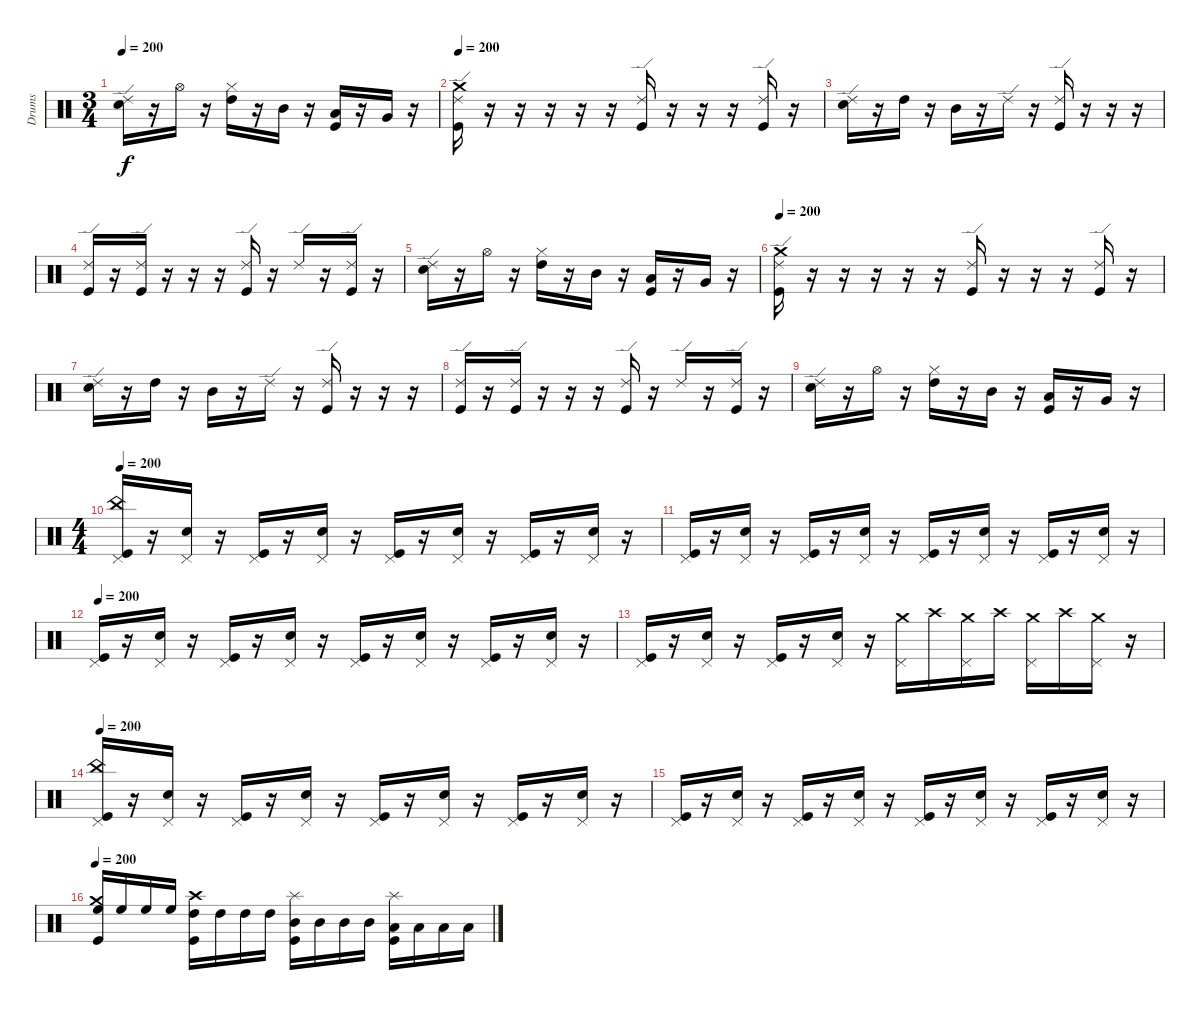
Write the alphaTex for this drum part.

\track ("Drums" "Drums") {instrument percussion}
\staff {score}
\articulation defaults
\ts (3 4)
\tempo 200
\clef neutral
\ks c
("Ride (edge) 2" "Electric Snare (hit)").16{dy f} r.16 "Hi-Hat (open)".16 r.16 ("High Tom (hit)" "Hi-Hat (closed)").16 r.16 "Mid Tom (hit)".16 r.16 ("Low Tom (hit)" "Kick (hit)").16 r.16 "Very Low Tom (hit)".16 r.16 |
\tempo 200
("Ride (edge) 2" "Kick (hit)" "Crash medium (hit)").16 r.16 r.16 r.16 r.16 r.16 ("Ride (edge) 2" "Kick (hit)").16 r.16 r.16 r.16 ("Ride (edge) 2" "Kick (hit)").16 r.16 |
("Ride (edge) 2" "Electric Snare (hit)").16 r.16 "High Tom (hit)".16 r.16 "Mid Tom (hit)".16 r.16 "Ride (edge) 2".16 r.16 ("Ride (edge) 2" "Kick (hit)").16 r.16 r.16 r.16 |
("Ride (edge) 2" "Kick (hit)").16 r.16 ("Ride (edge) 2" "Kick (hit)").16 r.16 r.16 r.16 ("Ride (edge) 2" "Kick (hit)").16 r.16 "Ride (edge) 2".16 r.16 ("Ride (edge) 2" "Kick (hit)").16 r.16 |
("Ride (edge) 2" "Electric Snare (hit)").16 r.16 "Hi-Hat (open)".16 r.16 ("High Tom (hit)" "Hi-Hat (closed)").16 r.16 "Mid Tom (hit)".16 r.16 ("Low Tom (hit)" "Kick (hit)").16 r.16 "Very Low Tom (hit)".16 r.16 |
\tempo 200
("Ride (edge) 2" "Kick (hit)" "Crash medium (hit)").16 r.16 r.16 r.16 r.16 r.16 ("Ride (edge) 2" "Kick (hit)").16 r.16 r.16 r.16 ("Ride (edge) 2" "Kick (hit)").16 r.16 |
("Ride (edge) 2" "Electric Snare (hit)").16 r.16 "High Tom (hit)".16 r.16 "Mid Tom (hit)".16 r.16 "Ride (edge) 2".16 r.16 ("Ride (edge) 2" "Kick (hit)").16 r.16 r.16 r.16 |
("Ride (edge) 2" "Kick (hit)").16 r.16 ("Ride (edge) 2" "Kick (hit)").16 r.16 r.16 r.16 ("Ride (edge) 2" "Kick (hit)").16 r.16 "Ride (edge) 2".16 r.16 ("Ride (edge) 2" "Kick (hit)").16 r.16 |
("Ride (edge) 2" "Electric Snare (hit)").16 r.16 "Hi-Hat (open)".16 r.16 ("High Tom (hit)" "Hi-Hat (closed)").16 r.16 "Mid Tom (hit)".16 r.16 ("Low Tom (hit)" "Kick (hit)").16 r.16 "Very Low Tom (hit)".16 r.16 |
\ts (4 4)
\tempo 200
("China (hit)" "Pedal Hi-Hat (hit)" "Kick (hit)").16 r.16 ("Pedal Hi-Hat (hit)" "Electric Snare (hit)").16 r.16 ("Pedal Hi-Hat (hit)" "Kick (hit)").16 r.16 ("Pedal Hi-Hat (hit)" "Electric Snare (hit)").16 r.16 ("Pedal Hi-Hat (hit)" "Kick (hit)").16 r.16 ("Pedal Hi-Hat (hit)" "Electric Snare (hit)").16 r.16 ("Pedal Hi-Hat (hit)" "Kick (hit)").16 r.16 ("Pedal Hi-Hat (hit)" "Electric Snare (hit)").16 r.16 |
("Pedal Hi-Hat (hit)" "Kick (hit)").16 r.16 ("Pedal Hi-Hat (hit)" "Electric Snare (hit)").16 r.16 ("Pedal Hi-Hat (hit)" "Kick (hit)").16 r.16 ("Pedal Hi-Hat (hit)" "Electric Snare (hit)").16 r.16 ("Pedal Hi-Hat (hit)" "Kick (hit)").16 r.16 ("Pedal Hi-Hat (hit)" "Electric Snare (hit)").16 r.16 ("Pedal Hi-Hat (hit)" "Kick (hit)").16 r.16 ("Pedal Hi-Hat (hit)" "Electric Snare (hit)").16 r.16 |
\tempo 200
("Pedal Hi-Hat (hit)" "Kick (hit)").16 r.16 ("Pedal Hi-Hat (hit)" "Electric Snare (hit)").16 r.16 ("Pedal Hi-Hat (hit)" "Kick (hit)").16 r.16 ("Pedal Hi-Hat (hit)" "Electric Snare (hit)").16 r.16 ("Pedal Hi-Hat (hit)" "Kick (hit)").16 r.16 ("Pedal Hi-Hat (hit)" "Electric Snare (hit)").16 r.16 ("Pedal Hi-Hat (hit)" "Kick (hit)").16 r.16 ("Pedal Hi-Hat (hit)" "Electric Snare (hit)").16 r.16 |
("Pedal Hi-Hat (hit)" "Kick (hit)").16 r.16 ("Pedal Hi-Hat (hit)" "Electric Snare (hit)").16 r.16 ("Pedal Hi-Hat (hit)" "Kick (hit)").16 r.16 ("Pedal Hi-Hat (hit)" "Electric Snare (hit)").16 r.16 ("Pedal Hi-Hat (hit)" "Crash medium (hit)").16 "Crash high (hit)".16 ("Pedal Hi-Hat (hit)" "Crash medium (hit)").16 "Crash high (hit)".16 ("Pedal Hi-Hat (hit)" "Crash medium (hit)").16 "Crash high (hit)".16 ("Pedal Hi-Hat (hit)" "Crash medium (hit)").16 r.16 |
\tempo 200
("China (hit)" "Pedal Hi-Hat (hit)" "Kick (hit)").16 r.16 ("Pedal Hi-Hat (hit)" "Electric Snare (hit)").16 r.16 ("Pedal Hi-Hat (hit)" "Kick (hit)").16 r.16 ("Pedal Hi-Hat (hit)" "Electric Snare (hit)").16 r.16 ("Pedal Hi-Hat (hit)" "Kick (hit)").16 r.16 ("Pedal Hi-Hat (hit)" "Electric Snare (hit)").16 r.16 ("Pedal Hi-Hat (hit)" "Kick (hit)").16 r.16 ("Pedal Hi-Hat (hit)" "Electric Snare (hit)").16 r.16 |
("Pedal Hi-Hat (hit)" "Kick (hit)").16 r.16 ("Pedal Hi-Hat (hit)" "Electric Snare (hit)").16 r.16 ("Pedal Hi-Hat (hit)" "Kick (hit)").16 r.16 ("Pedal Hi-Hat (hit)" "Electric Snare (hit)").16 r.16 ("Pedal Hi-Hat (hit)" "Kick (hit)").16 r.16 ("Pedal Hi-Hat (hit)" "Electric Snare (hit)").16 r.16 ("Pedal Hi-Hat (hit)" "Kick (hit)").16 r.16 ("Pedal Hi-Hat (hit)" "Electric Snare (hit)").16 r.16 |
\tempo 200
("Crash medium (hit)" "High Floor Tom (hit)" "Kick (hit)").16 "High Floor Tom (hit)".16 "High Floor Tom (hit)".16 "High Floor Tom (hit)".16 ("Crash high (hit)" "High Tom (hit)" "Kick (hit)").16 "High Tom (hit)".16 "High Tom (hit)".16 "High Tom (hit)".16 ("Splash (hit)" "Mid Tom (hit)" "Kick (hit)").16 "Mid Tom (hit)".16 "Mid Tom (hit)".16 "Mid Tom (hit)".16 ("Splash (hit)" "Low Tom (hit)" "Kick (hit)").16 "Low Tom (hit)".16 "Low Tom (hit)".16 "Low Tom (hit)".16
